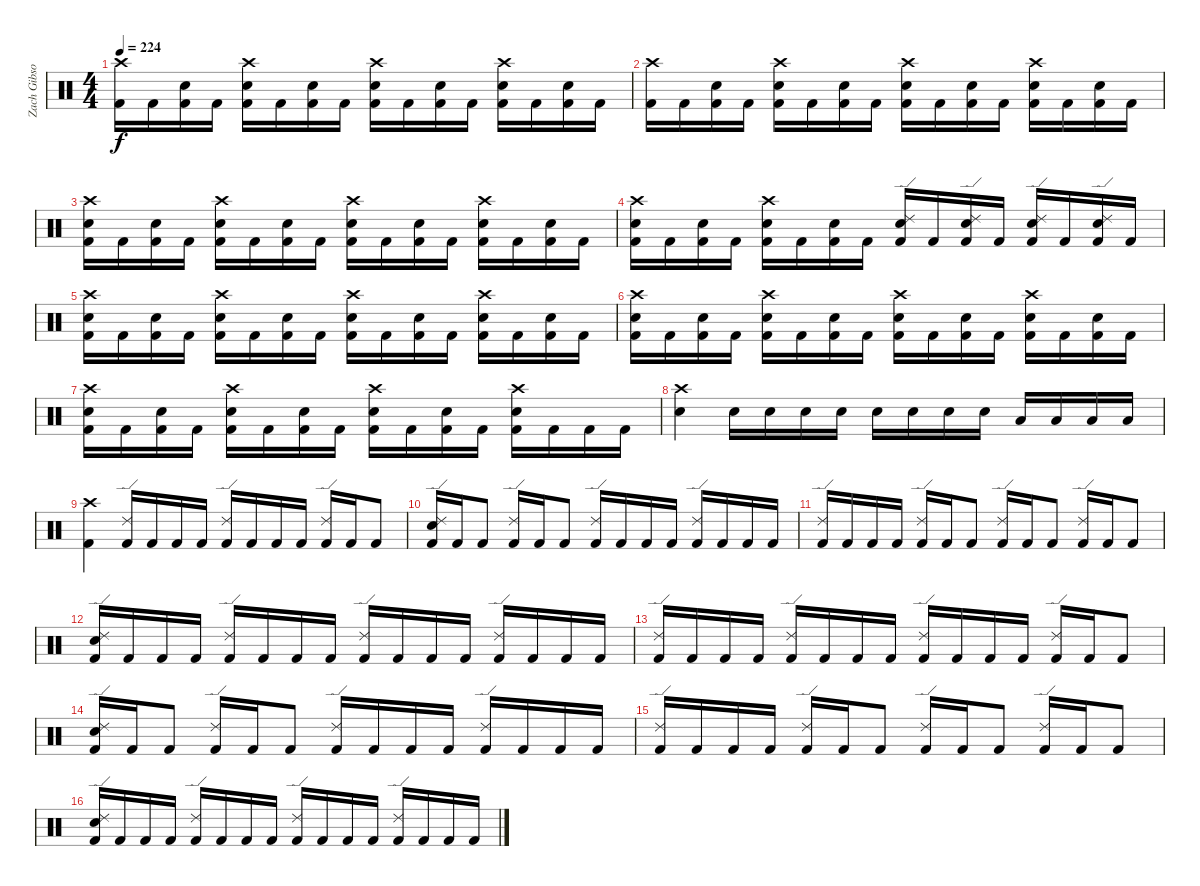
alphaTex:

\track ("Zach Gibson (Drums)" "Zach Gibso") {instrument percussion}
\staff {score}
\articulation defaults
\ts (4 4)
\tempo 224
\clef neutral
\ks c
("Crash high (hit)" "Kick (hit) 2").16{dy f} "Kick (hit) 2".16 ("Snare (hit) 2" "Kick (hit) 2").16 "Kick (hit) 2".16 ("Kick (hit) 2" "Crash high (hit)" "Snare (hit) 2").16 "Kick (hit) 2".16 ("Snare (hit) 2" "Kick (hit) 2").16 "Kick (hit) 2".16 ("Kick (hit) 2" "Crash high (hit)" "Snare (hit) 2").16 "Kick (hit) 2".16 ("Snare (hit) 2" "Kick (hit) 2").16 "Kick (hit) 2".16 ("Kick (hit) 2" "Crash high (hit)" "Snare (hit) 2").16 "Kick (hit) 2".16 ("Snare (hit) 2" "Kick (hit) 2").16 "Kick (hit) 2".16 |
("Crash high (hit)" "Kick (hit) 2").16 "Kick (hit) 2".16 ("Snare (hit) 2" "Kick (hit) 2").16 "Kick (hit) 2".16 ("Kick (hit) 2" "Crash high (hit)" "Snare (hit) 2").16 "Kick (hit) 2".16 ("Snare (hit) 2" "Kick (hit) 2").16 "Kick (hit) 2".16 ("Kick (hit) 2" "Crash high (hit)" "Snare (hit) 2").16 "Kick (hit) 2".16 ("Snare (hit) 2" "Kick (hit) 2").16 "Kick (hit) 2".16 ("Kick (hit) 2" "Crash high (hit)" "Snare (hit) 2").16 "Kick (hit) 2".16 ("Snare (hit) 2" "Kick (hit) 2").16 "Kick (hit) 2".16 |
("Crash high (hit)" "Snare (hit) 2" "Kick (hit) 2").16 "Kick (hit) 2".16 ("Snare (hit) 2" "Kick (hit) 2").16 "Kick (hit) 2".16 ("Kick (hit) 2" "Crash high (hit)" "Snare (hit) 2").16 "Kick (hit) 2".16 ("Snare (hit) 2" "Kick (hit) 2").16 "Kick (hit) 2".16 ("Kick (hit) 2" "Crash high (hit)" "Snare (hit) 2").16 "Kick (hit) 2".16 ("Snare (hit) 2" "Kick (hit) 2").16 "Kick (hit) 2".16 ("Kick (hit) 2" "Crash high (hit)" "Snare (hit) 2").16 "Kick (hit) 2".16 ("Snare (hit) 2" "Kick (hit) 2").16 "Kick (hit) 2".16 |
("Crash high (hit)" "Snare (hit) 2" "Kick (hit) 2").16 "Kick (hit) 2".16 ("Snare (hit) 2" "Kick (hit) 2").16 "Kick (hit) 2".16 ("Kick (hit) 2" "Crash high (hit)" "Snare (hit) 2").16 "Kick (hit) 2".16 ("Snare (hit) 2" "Kick (hit) 2").16 "Kick (hit) 2".16 ("Kick (hit) 2" "Ride (edge) 2" "Snare (hit) 2").16 "Kick (hit) 2".16 ("Snare (hit) 2" "Ride (edge) 2" "Kick (hit) 2").16 "Kick (hit) 2".16 ("Kick (hit) 2" "Ride (edge) 2" "Snare (hit) 2").16 "Kick (hit) 2".16 ("Snare (hit) 2" "Ride (edge) 2" "Kick (hit) 2").16 "Kick (hit) 2".16 |
("Crash high (hit)" "Snare (hit) 2" "Kick (hit) 2").16 "Kick (hit) 2".16 ("Snare (hit) 2" "Kick (hit) 2").16 "Kick (hit) 2".16 ("Kick (hit) 2" "Crash high (hit)" "Snare (hit) 2").16 "Kick (hit) 2".16 ("Snare (hit) 2" "Kick (hit) 2").16 "Kick (hit) 2".16 ("Kick (hit) 2" "Crash high (hit)" "Snare (hit) 2").16 "Kick (hit) 2".16 ("Snare (hit) 2" "Kick (hit) 2").16 "Kick (hit) 2".16 ("Kick (hit) 2" "Crash high (hit)" "Snare (hit) 2").16 "Kick (hit) 2".16 ("Snare (hit) 2" "Kick (hit) 2").16 "Kick (hit) 2".16 |
("Crash high (hit)" "Snare (hit) 2" "Kick (hit) 2").16 "Kick (hit) 2".16 ("Snare (hit) 2" "Kick (hit) 2").16 "Kick (hit) 2".16 ("Kick (hit) 2" "Crash high (hit)" "Snare (hit) 2").16 "Kick (hit) 2".16 ("Snare (hit) 2" "Kick (hit) 2").16 "Kick (hit) 2".16 ("Kick (hit) 2" "Crash high (hit)" "Snare (hit) 2").16 "Kick (hit) 2".16 ("Snare (hit) 2" "Kick (hit) 2").16 "Kick (hit) 2".16 ("Kick (hit) 2" "Crash high (hit)" "Snare (hit) 2").16 "Kick (hit) 2".16 ("Snare (hit) 2" "Kick (hit) 2").16 "Kick (hit) 2".16 |
("Crash high (hit)" "Snare (hit) 2" "Kick (hit) 2").16 "Kick (hit) 2".16 ("Snare (hit) 2" "Kick (hit) 2").16 "Kick (hit) 2".16 ("Kick (hit) 2" "Crash high (hit)" "Snare (hit) 2").16 "Kick (hit) 2".16 ("Snare (hit) 2" "Kick (hit) 2").16 "Kick (hit) 2".16 ("Kick (hit) 2" "Crash high (hit)" "Snare (hit) 2").16 "Kick (hit) 2".16 ("Snare (hit) 2" "Kick (hit) 2").16 "Kick (hit) 2".16 ("Kick (hit) 2" "Crash high (hit)" "Snare (hit) 2").16 "Kick (hit) 2".16 "Kick (hit) 2".16 "Kick (hit) 2".16 |
("Crash high (hit)" "Snare (hit) 2").4 "Snare (hit) 2".16 "Snare (hit) 2".16 "Snare (hit) 2".16 "Snare (hit) 2".16 "Snare (hit) 2".16 "Snare (hit) 2".16 "Snare (hit) 2".16 "Snare (hit) 2".16 "Low Tom (hit)".16 "Low Tom (hit)".16 "Low Tom (hit)".16 "Low Tom (hit)".16 |
("Crash high (hit)" "Kick (hit) 2").4 ("Ride (edge) 2" "Kick (hit) 2").16 "Kick (hit) 2".16 "Kick (hit) 2".16 "Kick (hit) 2".16 ("Ride (edge) 2" "Kick (hit) 2").16 "Kick (hit) 2".16 "Kick (hit) 2".16 "Kick (hit) 2".16 ("Ride (edge) 2" "Kick (hit) 2").16 "Kick (hit) 2".16 "Kick (hit) 2".8 |
("Snare (hit) 2" "Ride (edge) 2" "Kick (hit) 2").16 "Kick (hit) 2".16 "Kick (hit) 2".8 ("Ride (edge) 2" "Kick (hit) 2").16 "Kick (hit) 2".16 "Kick (hit) 2".8 ("Ride (edge) 2" "Kick (hit) 2").16 "Kick (hit) 2".16 "Kick (hit) 2".16 "Kick (hit) 2".16 ("Ride (edge) 2" "Kick (hit) 2").16 "Kick (hit) 2".16 "Kick (hit) 2".16 "Kick (hit) 2".16 |
("Ride (edge) 2" "Kick (hit) 2").16 "Kick (hit) 2".16 "Kick (hit) 2".16 "Kick (hit) 2".16 ("Ride (edge) 2" "Kick (hit) 2").16 "Kick (hit) 2".16 "Kick (hit) 2".8 ("Ride (edge) 2" "Kick (hit) 2").16 "Kick (hit) 2".16 "Kick (hit) 2".8 ("Ride (edge) 2" "Kick (hit) 2").16 "Kick (hit) 2".16 "Kick (hit) 2".8 |
("Ride (edge) 2" "Kick (hit) 2" "Snare (hit) 2").16 "Kick (hit) 2".16 "Kick (hit) 2".16 "Kick (hit) 2".16 ("Ride (edge) 2" "Kick (hit) 2").16 "Kick (hit) 2".16 "Kick (hit) 2".16 "Kick (hit) 2".16 ("Ride (edge) 2" "Kick (hit) 2").16 "Kick (hit) 2".16 "Kick (hit) 2".16 "Kick (hit) 2".16 ("Ride (edge) 2" "Kick (hit) 2").16 "Kick (hit) 2".16 "Kick (hit) 2".16 "Kick (hit) 2".16 |
("Ride (edge) 2" "Kick (hit) 2").16 "Kick (hit) 2".16 "Kick (hit) 2".16 "Kick (hit) 2".16 ("Ride (edge) 2" "Kick (hit) 2").16 "Kick (hit) 2".16 "Kick (hit) 2".16 "Kick (hit) 2".16 ("Ride (edge) 2" "Kick (hit) 2").16 "Kick (hit) 2".16 "Kick (hit) 2".16 "Kick (hit) 2".16 ("Ride (edge) 2" "Kick (hit) 2").16 "Kick (hit) 2".16 "Kick (hit) 2".8 |
("Snare (hit) 2" "Ride (edge) 2" "Kick (hit) 2").16 "Kick (hit) 2".16 "Kick (hit) 2".8 ("Ride (edge) 2" "Kick (hit) 2").16 "Kick (hit) 2".16 "Kick (hit) 2".8 ("Ride (edge) 2" "Kick (hit) 2").16 "Kick (hit) 2".16 "Kick (hit) 2".16 "Kick (hit) 2".16 ("Ride (edge) 2" "Kick (hit) 2").16 "Kick (hit) 2".16 "Kick (hit) 2".16 "Kick (hit) 2".16 |
("Ride (edge) 2" "Kick (hit) 2").16 "Kick (hit) 2".16 "Kick (hit) 2".16 "Kick (hit) 2".16 ("Ride (edge) 2" "Kick (hit) 2").16 "Kick (hit) 2".16 "Kick (hit) 2".8 ("Ride (edge) 2" "Kick (hit) 2").16 "Kick (hit) 2".16 "Kick (hit) 2".8 ("Ride (edge) 2" "Kick (hit) 2").16 "Kick (hit) 2".16 "Kick (hit) 2".8 |
("Ride (edge) 2" "Kick (hit) 2" "Snare (hit) 2").16 "Kick (hit) 2".16 "Kick (hit) 2".16 "Kick (hit) 2".16 ("Ride (edge) 2" "Kick (hit) 2").16 "Kick (hit) 2".16 "Kick (hit) 2".16 "Kick (hit) 2".16 ("Ride (edge) 2" "Kick (hit) 2").16 "Kick (hit) 2".16 "Kick (hit) 2".16 "Kick (hit) 2".16 ("Ride (edge) 2" "Kick (hit) 2").16 "Kick (hit) 2".16 "Kick (hit) 2".16 "Kick (hit) 2".16
